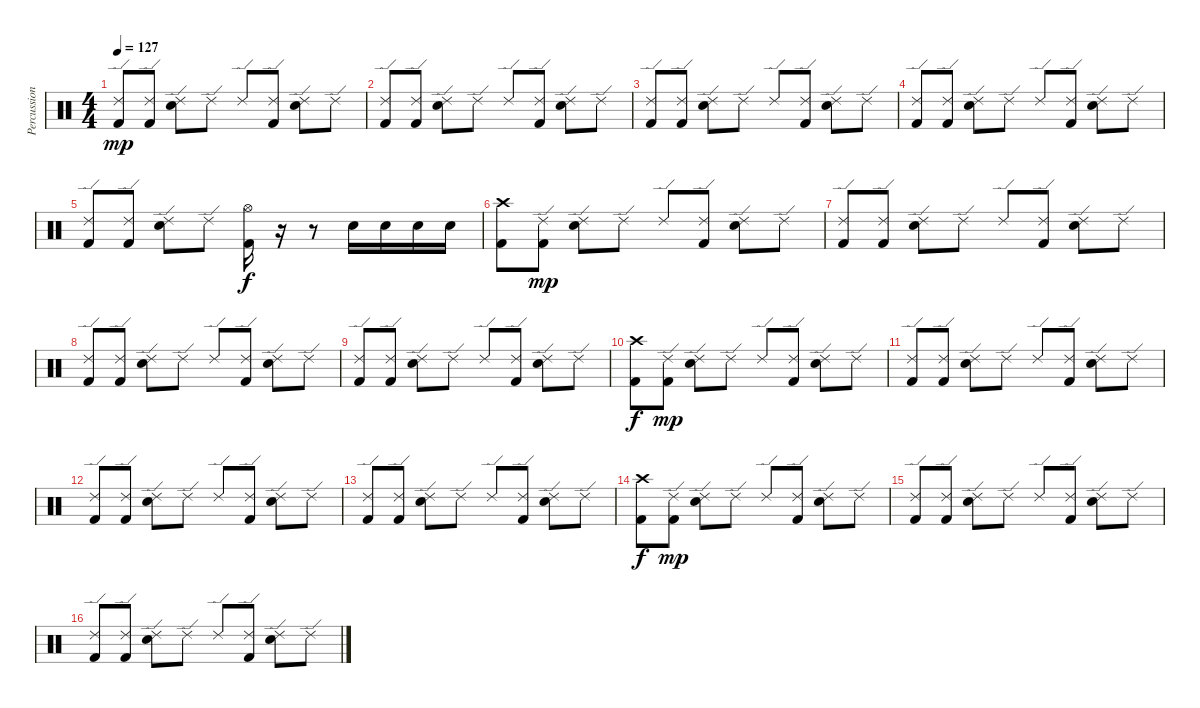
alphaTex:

\track ("Percussion" "Percussion") {instrument percussion}
\staff {score}
\articulation defaults
\ts (4 4)
\tempo 127
\clef neutral
\ks c
("Ride (edge) 2" "Kick (hit) 2").8{dy mp} ("Ride (edge) 2" "Kick (hit) 2").8 ("Ride (edge) 2" "Snare (hit) 2").8 "Ride (edge) 2".8 "Ride (edge) 2".8 ("Ride (edge) 2" "Kick (hit) 2").8 ("Ride (edge) 2" "Snare (hit) 2").8 "Ride (edge) 2".8 |
("Ride (edge) 2" "Kick (hit) 2").8 ("Ride (edge) 2" "Kick (hit) 2").8 ("Ride (edge) 2" "Snare (hit) 2").8 "Ride (edge) 2".8 "Ride (edge) 2".8 ("Ride (edge) 2" "Kick (hit) 2").8 ("Ride (edge) 2" "Snare (hit) 2").8 "Ride (edge) 2".8 |
("Ride (edge) 2" "Kick (hit) 2").8 ("Ride (edge) 2" "Kick (hit) 2").8 ("Ride (edge) 2" "Snare (hit) 2").8 "Ride (edge) 2".8 "Ride (edge) 2".8 ("Ride (edge) 2" "Kick (hit) 2").8 ("Ride (edge) 2" "Snare (hit) 2").8 "Ride (edge) 2".8 |
("Ride (edge) 2" "Kick (hit) 2").8 ("Ride (edge) 2" "Kick (hit) 2").8 ("Ride (edge) 2" "Snare (hit) 2").8 "Ride (edge) 2".8 "Ride (edge) 2".8 ("Ride (edge) 2" "Kick (hit) 2").8 ("Ride (edge) 2" "Snare (hit) 2").8 "Ride (edge) 2".8 |
("Ride (edge) 2" "Kick (hit) 2").8 ("Ride (edge) 2" "Kick (hit) 2").8 ("Ride (edge) 2" "Snare (hit) 2").8 "Ride (edge) 2".8 ("Hi-Hat (open)" "Kick (hit) 2").16{dy f} r.16 r.8 "Snare (hit) 2".16 "Snare (hit) 2".16 "Snare (hit) 2".16 "Snare (hit) 2".16 |
("Crash high (hit)" "Kick (hit) 2").8 ("Ride (edge) 2" "Kick (hit) 2").8{dy mp} ("Ride (edge) 2" "Snare (hit) 2").8 "Ride (edge) 2".8 "Ride (edge) 2".8 ("Ride (edge) 2" "Kick (hit) 2").8 ("Ride (edge) 2" "Snare (hit) 2").8 "Ride (edge) 2".8 |
("Ride (edge) 2" "Kick (hit) 2").8 ("Ride (edge) 2" "Kick (hit) 2").8 ("Ride (edge) 2" "Snare (hit) 2").8 "Ride (edge) 2".8 "Ride (edge) 2".8 ("Ride (edge) 2" "Kick (hit) 2").8 ("Ride (edge) 2" "Snare (hit) 2").8 "Ride (edge) 2".8 |
("Ride (edge) 2" "Kick (hit) 2").8 ("Ride (edge) 2" "Kick (hit) 2").8 ("Ride (edge) 2" "Snare (hit) 2").8 "Ride (edge) 2".8 "Ride (edge) 2".8 ("Ride (edge) 2" "Kick (hit) 2").8 ("Ride (edge) 2" "Snare (hit) 2").8 "Ride (edge) 2".8 |
("Ride (edge) 2" "Kick (hit) 2").8 ("Ride (edge) 2" "Kick (hit) 2").8 ("Ride (edge) 2" "Snare (hit) 2").8 "Ride (edge) 2".8 "Ride (edge) 2".8 ("Ride (edge) 2" "Kick (hit) 2").8 ("Ride (edge) 2" "Snare (hit) 2").8 "Ride (edge) 2".8 |
("Crash high (hit)" "Kick (hit) 2").8{dy f} ("Ride (edge) 2" "Kick (hit) 2").8{dy mp} ("Ride (edge) 2" "Snare (hit) 2").8 "Ride (edge) 2".8 "Ride (edge) 2".8 ("Ride (edge) 2" "Kick (hit) 2").8 ("Ride (edge) 2" "Snare (hit) 2").8 "Ride (edge) 2".8 |
("Ride (edge) 2" "Kick (hit) 2").8 ("Ride (edge) 2" "Kick (hit) 2").8 ("Ride (edge) 2" "Snare (hit) 2").8 "Ride (edge) 2".8 "Ride (edge) 2".8 ("Ride (edge) 2" "Kick (hit) 2").8 ("Ride (edge) 2" "Snare (hit) 2").8 "Ride (edge) 2".8 |
("Ride (edge) 2" "Kick (hit) 2").8 ("Ride (edge) 2" "Kick (hit) 2").8 ("Ride (edge) 2" "Snare (hit) 2").8 "Ride (edge) 2".8 "Ride (edge) 2".8 ("Ride (edge) 2" "Kick (hit) 2").8 ("Ride (edge) 2" "Snare (hit) 2").8 "Ride (edge) 2".8 |
("Ride (edge) 2" "Kick (hit) 2").8 ("Ride (edge) 2" "Kick (hit) 2").8 ("Ride (edge) 2" "Snare (hit) 2").8 "Ride (edge) 2".8 "Ride (edge) 2".8 ("Ride (edge) 2" "Kick (hit) 2").8 ("Ride (edge) 2" "Snare (hit) 2").8 "Ride (edge) 2".8 |
("Crash high (hit)" "Kick (hit) 2").8{dy f volume 14} ("Ride (edge) 2" "Kick (hit) 2").8{dy mp} ("Ride (edge) 2" "Snare (hit) 2").8 "Ride (edge) 2".8 "Ride (edge) 2".8 ("Ride (edge) 2" "Kick (hit) 2").8 ("Ride (edge) 2" "Snare (hit) 2").8 "Ride (edge) 2".8 |
("Ride (edge) 2" "Kick (hit) 2").8{volume 12} ("Ride (edge) 2" "Kick (hit) 2").8 ("Ride (edge) 2" "Snare (hit) 2").8 "Ride (edge) 2".8 "Ride (edge) 2".8 ("Ride (edge) 2" "Kick (hit) 2").8 ("Ride (edge) 2" "Snare (hit) 2").8 "Ride (edge) 2".8 |
("Ride (edge) 2" "Kick (hit) 2").8{volume 10} ("Ride (edge) 2" "Kick (hit) 2").8 ("Ride (edge) 2" "Snare (hit) 2").8 "Ride (edge) 2".8 "Ride (edge) 2".8 ("Ride (edge) 2" "Kick (hit) 2").8 ("Ride (edge) 2" "Snare (hit) 2").8 "Ride (edge) 2".8
